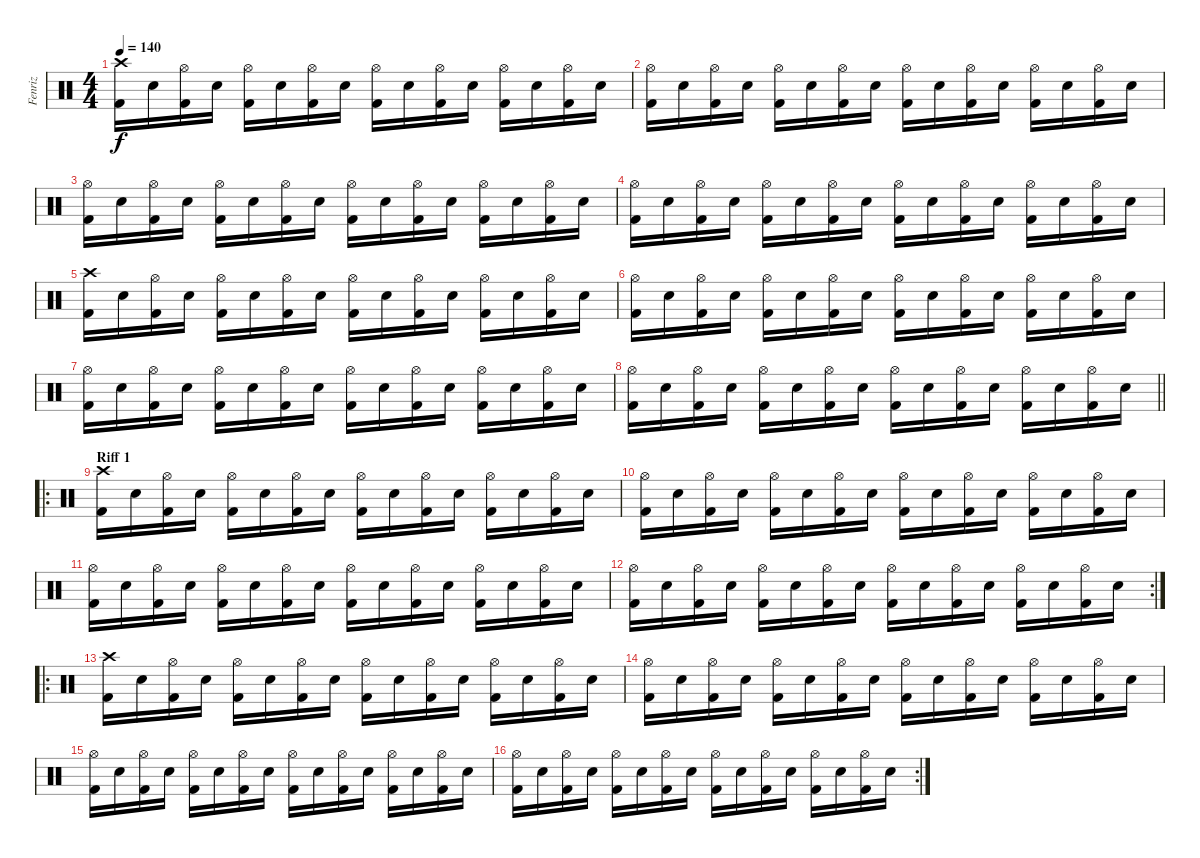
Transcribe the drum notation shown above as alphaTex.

\track ("Fenriz" "Fenriz") {instrument percussion}
\staff {score}
\articulation defaults
\ts (4 4)
\tempo 140
\clef neutral
\ks c
("Kick (hit) 2" "Crash high (hit)").16{dy f} "Electric Snare (hit)".16 ("Kick (hit) 2" "Hi-Hat (open)").16 "Electric Snare (hit)".16 ("Kick (hit) 2" "Hi-Hat (open)").16 "Electric Snare (hit)".16 ("Kick (hit) 2" "Hi-Hat (open)").16 "Electric Snare (hit)".16 ("Kick (hit) 2" "Hi-Hat (open)").16 "Electric Snare (hit)".16 ("Kick (hit) 2" "Hi-Hat (open)").16 "Electric Snare (hit)".16 ("Kick (hit) 2" "Hi-Hat (open)").16 "Electric Snare (hit)".16 ("Kick (hit) 2" "Hi-Hat (open)").16 "Electric Snare (hit)".16 |
("Kick (hit) 2" "Hi-Hat (open)").16 "Electric Snare (hit)".16 ("Kick (hit) 2" "Hi-Hat (open)").16 "Electric Snare (hit)".16 ("Kick (hit) 2" "Hi-Hat (open)").16 "Electric Snare (hit)".16 ("Kick (hit) 2" "Hi-Hat (open)").16 "Electric Snare (hit)".16 ("Kick (hit) 2" "Hi-Hat (open)").16 "Electric Snare (hit)".16 ("Kick (hit) 2" "Hi-Hat (open)").16 "Electric Snare (hit)".16 ("Kick (hit) 2" "Hi-Hat (open)").16 "Electric Snare (hit)".16 ("Kick (hit) 2" "Hi-Hat (open)").16 "Electric Snare (hit)".16 |
("Kick (hit) 2" "Hi-Hat (open)").16 "Electric Snare (hit)".16 ("Kick (hit) 2" "Hi-Hat (open)").16 "Electric Snare (hit)".16 ("Kick (hit) 2" "Hi-Hat (open)").16 "Electric Snare (hit)".16 ("Kick (hit) 2" "Hi-Hat (open)").16 "Electric Snare (hit)".16 ("Kick (hit) 2" "Hi-Hat (open)").16 "Electric Snare (hit)".16 ("Kick (hit) 2" "Hi-Hat (open)").16 "Electric Snare (hit)".16 ("Kick (hit) 2" "Hi-Hat (open)").16 "Electric Snare (hit)".16 ("Kick (hit) 2" "Hi-Hat (open)").16 "Electric Snare (hit)".16 |
("Kick (hit) 2" "Hi-Hat (open)").16 "Electric Snare (hit)".16 ("Kick (hit) 2" "Hi-Hat (open)").16 "Electric Snare (hit)".16 ("Kick (hit) 2" "Hi-Hat (open)").16 "Electric Snare (hit)".16 ("Kick (hit) 2" "Hi-Hat (open)").16 "Electric Snare (hit)".16 ("Kick (hit) 2" "Hi-Hat (open)").16 "Electric Snare (hit)".16 ("Kick (hit) 2" "Hi-Hat (open)").16 "Electric Snare (hit)".16 ("Kick (hit) 2" "Hi-Hat (open)").16 "Electric Snare (hit)".16 ("Kick (hit) 2" "Hi-Hat (open)").16 "Electric Snare (hit)".16 |
("Kick (hit) 2" "Crash high (hit)").16 "Electric Snare (hit)".16 ("Kick (hit) 2" "Hi-Hat (open)").16 "Electric Snare (hit)".16 ("Kick (hit) 2" "Hi-Hat (open)").16 "Electric Snare (hit)".16 ("Kick (hit) 2" "Hi-Hat (open)").16 "Electric Snare (hit)".16 ("Kick (hit) 2" "Hi-Hat (open)").16 "Electric Snare (hit)".16 ("Kick (hit) 2" "Hi-Hat (open)").16 "Electric Snare (hit)".16 ("Kick (hit) 2" "Hi-Hat (open)").16 "Electric Snare (hit)".16 ("Kick (hit) 2" "Hi-Hat (open)").16 "Electric Snare (hit)".16 |
("Kick (hit) 2" "Hi-Hat (open)").16 "Electric Snare (hit)".16 ("Kick (hit) 2" "Hi-Hat (open)").16 "Electric Snare (hit)".16 ("Kick (hit) 2" "Hi-Hat (open)").16 "Electric Snare (hit)".16 ("Kick (hit) 2" "Hi-Hat (open)").16 "Electric Snare (hit)".16 ("Kick (hit) 2" "Hi-Hat (open)").16 "Electric Snare (hit)".16 ("Kick (hit) 2" "Hi-Hat (open)").16 "Electric Snare (hit)".16 ("Kick (hit) 2" "Hi-Hat (open)").16 "Electric Snare (hit)".16 ("Kick (hit) 2" "Hi-Hat (open)").16 "Electric Snare (hit)".16 |
("Kick (hit) 2" "Hi-Hat (open)").16 "Electric Snare (hit)".16 ("Kick (hit) 2" "Hi-Hat (open)").16 "Electric Snare (hit)".16 ("Kick (hit) 2" "Hi-Hat (open)").16 "Electric Snare (hit)".16 ("Kick (hit) 2" "Hi-Hat (open)").16 "Electric Snare (hit)".16 ("Kick (hit) 2" "Hi-Hat (open)").16 "Electric Snare (hit)".16 ("Kick (hit) 2" "Hi-Hat (open)").16 "Electric Snare (hit)".16 ("Kick (hit) 2" "Hi-Hat (open)").16 "Electric Snare (hit)".16 ("Kick (hit) 2" "Hi-Hat (open)").16 "Electric Snare (hit)".16 |
\barLineRight lightlight
("Kick (hit) 2" "Hi-Hat (open)").16 "Electric Snare (hit)".16 ("Kick (hit) 2" "Hi-Hat (open)").16 "Electric Snare (hit)".16 ("Kick (hit) 2" "Hi-Hat (open)").16 "Electric Snare (hit)".16 ("Kick (hit) 2" "Hi-Hat (open)").16 "Electric Snare (hit)".16 ("Kick (hit) 2" "Hi-Hat (open)").16 "Electric Snare (hit)".16 ("Kick (hit) 2" "Hi-Hat (open)").16 "Electric Snare (hit)".16 ("Kick (hit) 2" "Hi-Hat (open)").16 "Electric Snare (hit)".16 ("Kick (hit) 2" "Hi-Hat (open)").16 "Electric Snare (hit)".16 |
\ro
\section ("" "Riff 1")
("Kick (hit) 2" "Crash high (hit)").16 "Electric Snare (hit)".16 ("Kick (hit) 2" "Hi-Hat (open)").16 "Electric Snare (hit)".16 ("Kick (hit) 2" "Hi-Hat (open)").16 "Electric Snare (hit)".16 ("Kick (hit) 2" "Hi-Hat (open)").16 "Electric Snare (hit)".16 ("Kick (hit) 2" "Hi-Hat (open)").16 "Electric Snare (hit)".16 ("Kick (hit) 2" "Hi-Hat (open)").16 "Electric Snare (hit)".16 ("Kick (hit) 2" "Hi-Hat (open)").16 "Electric Snare (hit)".16 ("Kick (hit) 2" "Hi-Hat (open)").16 "Electric Snare (hit)".16 |
("Kick (hit) 2" "Hi-Hat (open)").16 "Electric Snare (hit)".16 ("Kick (hit) 2" "Hi-Hat (open)").16 "Electric Snare (hit)".16 ("Kick (hit) 2" "Hi-Hat (open)").16 "Electric Snare (hit)".16 ("Kick (hit) 2" "Hi-Hat (open)").16 "Electric Snare (hit)".16 ("Kick (hit) 2" "Hi-Hat (open)").16 "Electric Snare (hit)".16 ("Kick (hit) 2" "Hi-Hat (open)").16 "Electric Snare (hit)".16 ("Kick (hit) 2" "Hi-Hat (open)").16 "Electric Snare (hit)".16 ("Kick (hit) 2" "Hi-Hat (open)").16 "Electric Snare (hit)".16 |
("Kick (hit) 2" "Hi-Hat (open)").16 "Electric Snare (hit)".16 ("Kick (hit) 2" "Hi-Hat (open)").16 "Electric Snare (hit)".16 ("Kick (hit) 2" "Hi-Hat (open)").16 "Electric Snare (hit)".16 ("Kick (hit) 2" "Hi-Hat (open)").16 "Electric Snare (hit)".16 ("Kick (hit) 2" "Hi-Hat (open)").16 "Electric Snare (hit)".16 ("Kick (hit) 2" "Hi-Hat (open)").16 "Electric Snare (hit)".16 ("Kick (hit) 2" "Hi-Hat (open)").16 "Electric Snare (hit)".16 ("Kick (hit) 2" "Hi-Hat (open)").16 "Electric Snare (hit)".16 |
\rc 2
("Kick (hit) 2" "Hi-Hat (open)").16 "Electric Snare (hit)".16 ("Kick (hit) 2" "Hi-Hat (open)").16 "Electric Snare (hit)".16 ("Kick (hit) 2" "Hi-Hat (open)").16 "Electric Snare (hit)".16 ("Kick (hit) 2" "Hi-Hat (open)").16 "Electric Snare (hit)".16 ("Kick (hit) 2" "Hi-Hat (open)").16 "Electric Snare (hit)".16 ("Kick (hit) 2" "Hi-Hat (open)").16 "Electric Snare (hit)".16 ("Kick (hit) 2" "Hi-Hat (open)").16 "Electric Snare (hit)".16 ("Kick (hit) 2" "Hi-Hat (open)").16 "Electric Snare (hit)".16 |
\ro
("Kick (hit) 2" "Crash high (hit)").16 "Electric Snare (hit)".16 ("Kick (hit) 2" "Hi-Hat (open)").16 "Electric Snare (hit)".16 ("Kick (hit) 2" "Hi-Hat (open)").16 "Electric Snare (hit)".16 ("Kick (hit) 2" "Hi-Hat (open)").16 "Electric Snare (hit)".16 ("Kick (hit) 2" "Hi-Hat (open)").16 "Electric Snare (hit)".16 ("Kick (hit) 2" "Hi-Hat (open)").16 "Electric Snare (hit)".16 ("Kick (hit) 2" "Hi-Hat (open)").16 "Electric Snare (hit)".16 ("Kick (hit) 2" "Hi-Hat (open)").16 "Electric Snare (hit)".16 |
("Kick (hit) 2" "Hi-Hat (open)").16 "Electric Snare (hit)".16 ("Kick (hit) 2" "Hi-Hat (open)").16 "Electric Snare (hit)".16 ("Kick (hit) 2" "Hi-Hat (open)").16 "Electric Snare (hit)".16 ("Kick (hit) 2" "Hi-Hat (open)").16 "Electric Snare (hit)".16 ("Kick (hit) 2" "Hi-Hat (open)").16 "Electric Snare (hit)".16 ("Kick (hit) 2" "Hi-Hat (open)").16 "Electric Snare (hit)".16 ("Kick (hit) 2" "Hi-Hat (open)").16 "Electric Snare (hit)".16 ("Kick (hit) 2" "Hi-Hat (open)").16 "Electric Snare (hit)".16 |
("Kick (hit) 2" "Hi-Hat (open)").16 "Electric Snare (hit)".16 ("Kick (hit) 2" "Hi-Hat (open)").16 "Electric Snare (hit)".16 ("Kick (hit) 2" "Hi-Hat (open)").16 "Electric Snare (hit)".16 ("Kick (hit) 2" "Hi-Hat (open)").16 "Electric Snare (hit)".16 ("Kick (hit) 2" "Hi-Hat (open)").16 "Electric Snare (hit)".16 ("Kick (hit) 2" "Hi-Hat (open)").16 "Electric Snare (hit)".16 ("Kick (hit) 2" "Hi-Hat (open)").16 "Electric Snare (hit)".16 ("Kick (hit) 2" "Hi-Hat (open)").16 "Electric Snare (hit)".16 |
\rc 2
("Kick (hit) 2" "Hi-Hat (open)").16 "Electric Snare (hit)".16 ("Kick (hit) 2" "Hi-Hat (open)").16 "Electric Snare (hit)".16 ("Kick (hit) 2" "Hi-Hat (open)").16 "Electric Snare (hit)".16 ("Kick (hit) 2" "Hi-Hat (open)").16 "Electric Snare (hit)".16 ("Kick (hit) 2" "Hi-Hat (open)").16 "Electric Snare (hit)".16 ("Kick (hit) 2" "Hi-Hat (open)").16 "Electric Snare (hit)".16 ("Kick (hit) 2" "Hi-Hat (open)").16 "Electric Snare (hit)".16 ("Kick (hit) 2" "Hi-Hat (open)").16 "Electric Snare (hit)".16
